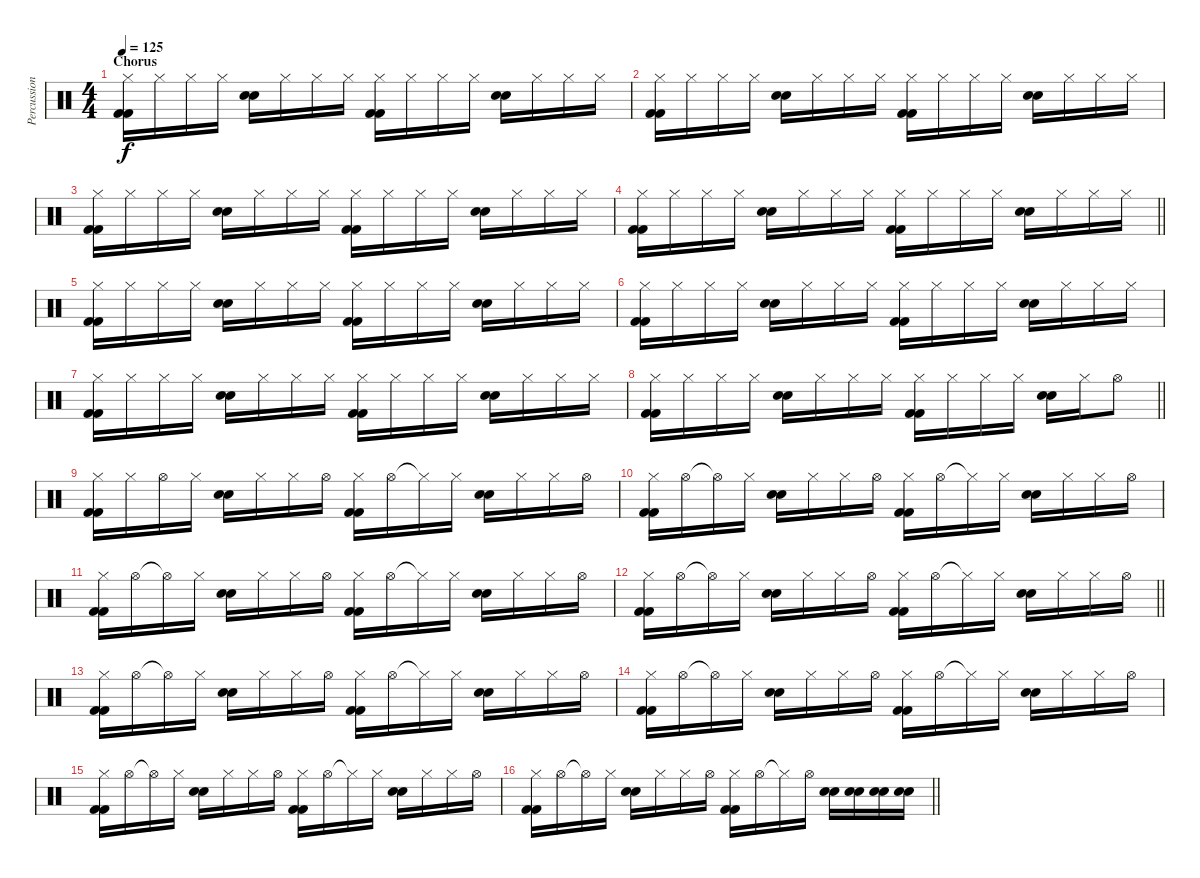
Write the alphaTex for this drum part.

\track ("Percussion" "Percussion") {instrument percussion}
\staff {score}
\articulation defaults
\ts (4 4)
\section ("" "Chorus")
\tempo 125
\clef neutral
\ks c
("Hi-Hat (closed)" "Kick (hit) 2" "Kick (hit) 2").16{dy f} "Hi-Hat (closed)".16 "Hi-Hat (closed)".16 "Hi-Hat (closed)".16 ("Electric Snare (hit)" "Electric Snare (hit)").16 "Hi-Hat (closed)".16 "Hi-Hat (closed)".16 "Hi-Hat (closed)".16 ("Hi-Hat (closed)" "Kick (hit) 2" "Kick (hit) 2").16 "Hi-Hat (closed)".16 "Hi-Hat (closed)".16 "Hi-Hat (closed)".16 ("Electric Snare (hit)" "Electric Snare (hit)").16 "Hi-Hat (closed)".16 "Hi-Hat (closed)".16 "Hi-Hat (closed)".16 |
("Hi-Hat (closed)" "Kick (hit) 2" "Kick (hit) 2").16 "Hi-Hat (closed)".16 "Hi-Hat (closed)".16 "Hi-Hat (closed)".16 ("Electric Snare (hit)" "Electric Snare (hit)").16 "Hi-Hat (closed)".16 "Hi-Hat (closed)".16 "Hi-Hat (closed)".16 ("Hi-Hat (closed)" "Kick (hit) 2" "Kick (hit) 2").16 "Hi-Hat (closed)".16 "Hi-Hat (closed)".16 "Hi-Hat (closed)".16 ("Electric Snare (hit)" "Electric Snare (hit)").16 "Hi-Hat (closed)".16 "Hi-Hat (closed)".16 "Hi-Hat (closed)".16 |
("Hi-Hat (closed)" "Kick (hit) 2" "Kick (hit) 2").16 "Hi-Hat (closed)".16 "Hi-Hat (closed)".16 "Hi-Hat (closed)".16 ("Electric Snare (hit)" "Electric Snare (hit)").16 "Hi-Hat (closed)".16 "Hi-Hat (closed)".16 "Hi-Hat (closed)".16 ("Hi-Hat (closed)" "Kick (hit) 2" "Kick (hit) 2").16 "Hi-Hat (closed)".16 "Hi-Hat (closed)".16 "Hi-Hat (closed)".16 ("Electric Snare (hit)" "Electric Snare (hit)").16 "Hi-Hat (closed)".16 "Hi-Hat (closed)".16 "Hi-Hat (closed)".16 |
\barLineRight lightlight
("Hi-Hat (closed)" "Kick (hit) 2" "Kick (hit) 2").16 "Hi-Hat (closed)".16 "Hi-Hat (closed)".16 "Hi-Hat (closed)".16 ("Electric Snare (hit)" "Electric Snare (hit)").16 "Hi-Hat (closed)".16 "Hi-Hat (closed)".16 "Hi-Hat (closed)".16 ("Hi-Hat (closed)" "Kick (hit) 2" "Kick (hit) 2").16 "Hi-Hat (closed)".16 "Hi-Hat (closed)".16 "Hi-Hat (closed)".16 ("Electric Snare (hit)" "Electric Snare (hit)").16 "Hi-Hat (closed)".16 "Hi-Hat (closed)".16 "Hi-Hat (closed)".16 |
("Hi-Hat (closed)" "Kick (hit) 2" "Kick (hit) 2").16 "Hi-Hat (closed)".16 "Hi-Hat (closed)".16 "Hi-Hat (closed)".16 ("Electric Snare (hit)" "Electric Snare (hit)").16 "Hi-Hat (closed)".16 "Hi-Hat (closed)".16 "Hi-Hat (closed)".16 ("Hi-Hat (closed)" "Kick (hit) 2" "Kick (hit) 2").16 "Hi-Hat (closed)".16 "Hi-Hat (closed)".16 "Hi-Hat (closed)".16 ("Electric Snare (hit)" "Electric Snare (hit)").16 "Hi-Hat (closed)".16 "Hi-Hat (closed)".16 "Hi-Hat (closed)".16 |
("Hi-Hat (closed)" "Kick (hit) 2" "Kick (hit) 2").16 "Hi-Hat (closed)".16 "Hi-Hat (closed)".16 "Hi-Hat (closed)".16 ("Electric Snare (hit)" "Electric Snare (hit)").16 "Hi-Hat (closed)".16 "Hi-Hat (closed)".16 "Hi-Hat (closed)".16 ("Hi-Hat (closed)" "Kick (hit) 2" "Kick (hit) 2").16 "Hi-Hat (closed)".16 "Hi-Hat (closed)".16 "Hi-Hat (closed)".16 ("Electric Snare (hit)" "Electric Snare (hit)").16 "Hi-Hat (closed)".16 "Hi-Hat (closed)".16 "Hi-Hat (closed)".16 |
("Hi-Hat (closed)" "Kick (hit) 2" "Kick (hit) 2").16 "Hi-Hat (closed)".16 "Hi-Hat (closed)".16 "Hi-Hat (closed)".16 ("Electric Snare (hit)" "Electric Snare (hit)").16 "Hi-Hat (closed)".16 "Hi-Hat (closed)".16 "Hi-Hat (closed)".16 ("Hi-Hat (closed)" "Kick (hit) 2" "Kick (hit) 2").16 "Hi-Hat (closed)".16 "Hi-Hat (closed)".16 "Hi-Hat (closed)".16 ("Electric Snare (hit)" "Electric Snare (hit)").16 "Hi-Hat (closed)".16 "Hi-Hat (closed)".16 "Hi-Hat (closed)".16 |
\barLineRight lightlight
("Hi-Hat (closed)" "Kick (hit) 2" "Kick (hit) 2").16 "Hi-Hat (closed)".16 "Hi-Hat (closed)".16 "Hi-Hat (closed)".16 ("Electric Snare (hit)" "Electric Snare (hit)").16 "Hi-Hat (closed)".16 "Hi-Hat (closed)".16 "Hi-Hat (closed)".16 ("Hi-Hat (closed)" "Kick (hit) 2" "Kick (hit) 2").16 "Hi-Hat (closed)".16 "Hi-Hat (closed)".16 "Hi-Hat (closed)".16 ("Electric Snare (hit)" "Electric Snare (hit)").16 "Hi-Hat (closed)".16 "Hi-Hat (open)".8 |
("Hi-Hat (closed)" "Kick (hit) 2" "Kick (hit) 2").16 "Hi-Hat (closed)".16 "Hi-Hat (open)".16 "Hi-Hat (closed)".16 ("Electric Snare (hit)" "Electric Snare (hit)").16 "Hi-Hat (closed)".16 "Hi-Hat (closed)".16 "Hi-Hat (open)".16 ("Hi-Hat (closed)" "Kick (hit) 2" "Kick (hit) 2").16 "Hi-Hat (open)".16 "Hi-Hat (closed)"{t}.16 "Hi-Hat (closed)".16 ("Electric Snare (hit)" "Electric Snare (hit)").16 "Hi-Hat (closed)".16 "Hi-Hat (closed)".16 "Hi-Hat (open)".16 |
("Hi-Hat (closed)" "Kick (hit) 2" "Kick (hit) 2").16 "Hi-Hat (open)".16 "Hi-Hat (open)"{t}.16 "Hi-Hat (closed)".16 ("Electric Snare (hit)" "Electric Snare (hit)").16 "Hi-Hat (closed)".16 "Hi-Hat (closed)".16 "Hi-Hat (open)".16 ("Hi-Hat (closed)" "Kick (hit) 2" "Kick (hit) 2").16 "Hi-Hat (open)".16 "Hi-Hat (closed)"{t}.16 "Hi-Hat (closed)".16 ("Electric Snare (hit)" "Electric Snare (hit)").16 "Hi-Hat (closed)".16 "Hi-Hat (closed)".16 "Hi-Hat (open)".16 |
("Hi-Hat (closed)" "Kick (hit) 2" "Kick (hit) 2").16 "Hi-Hat (open)".16 "Hi-Hat (open)"{t}.16 "Hi-Hat (closed)".16 ("Electric Snare (hit)" "Electric Snare (hit)").16 "Hi-Hat (closed)".16 "Hi-Hat (closed)".16 "Hi-Hat (open)".16 ("Hi-Hat (closed)" "Kick (hit) 2" "Kick (hit) 2").16 "Hi-Hat (open)".16 "Hi-Hat (closed)"{t}.16 "Hi-Hat (closed)".16 ("Electric Snare (hit)" "Electric Snare (hit)").16 "Hi-Hat (closed)".16 "Hi-Hat (closed)".16 "Hi-Hat (open)".16 |
\barLineRight lightlight
("Hi-Hat (closed)" "Kick (hit) 2" "Kick (hit) 2").16 "Hi-Hat (open)".16 "Hi-Hat (open)"{t}.16 "Hi-Hat (closed)".16 ("Electric Snare (hit)" "Electric Snare (hit)").16 "Hi-Hat (closed)".16 "Hi-Hat (closed)".16 "Hi-Hat (open)".16 ("Hi-Hat (closed)" "Kick (hit) 2" "Kick (hit) 2").16 "Hi-Hat (open)".16 "Hi-Hat (closed)"{t}.16 "Hi-Hat (closed)".16 ("Electric Snare (hit)" "Electric Snare (hit)").16 "Hi-Hat (closed)".16 "Hi-Hat (closed)".16 "Hi-Hat (open)".16 |
("Hi-Hat (closed)" "Kick (hit) 2" "Kick (hit) 2").16 "Hi-Hat (open)".16 "Hi-Hat (open)"{t}.16 "Hi-Hat (closed)".16 ("Electric Snare (hit)" "Electric Snare (hit)").16 "Hi-Hat (closed)".16 "Hi-Hat (closed)".16 "Hi-Hat (open)".16 ("Hi-Hat (closed)" "Kick (hit) 2" "Kick (hit) 2").16 "Hi-Hat (open)".16 "Hi-Hat (closed)"{t}.16 "Hi-Hat (closed)".16 ("Electric Snare (hit)" "Electric Snare (hit)").16 "Hi-Hat (closed)".16 "Hi-Hat (closed)".16 "Hi-Hat (open)".16 |
("Hi-Hat (closed)" "Kick (hit) 2" "Kick (hit) 2").16 "Hi-Hat (open)".16 "Hi-Hat (open)"{t}.16 "Hi-Hat (closed)".16 ("Electric Snare (hit)" "Electric Snare (hit)").16 "Hi-Hat (closed)".16 "Hi-Hat (closed)".16 "Hi-Hat (open)".16 ("Hi-Hat (closed)" "Kick (hit) 2" "Kick (hit) 2").16 "Hi-Hat (open)".16 "Hi-Hat (closed)"{t}.16 "Hi-Hat (closed)".16 ("Electric Snare (hit)" "Electric Snare (hit)").16 "Hi-Hat (closed)".16 "Hi-Hat (closed)".16 "Hi-Hat (open)".16 |
("Hi-Hat (closed)" "Kick (hit) 2" "Kick (hit) 2").16 "Hi-Hat (open)".16 "Hi-Hat (open)"{t}.16 "Hi-Hat (closed)".16 ("Electric Snare (hit)" "Electric Snare (hit)").16 "Hi-Hat (closed)".16 "Hi-Hat (closed)".16 "Hi-Hat (open)".16 ("Hi-Hat (closed)" "Kick (hit) 2" "Kick (hit) 2").16 "Hi-Hat (open)".16 "Hi-Hat (closed)"{t}.16 "Hi-Hat (closed)".16 ("Electric Snare (hit)" "Electric Snare (hit)").16 "Hi-Hat (closed)".16 "Hi-Hat (closed)".16 "Hi-Hat (open)".16 |
\barLineRight lightlight
("Hi-Hat (closed)" "Kick (hit) 2" "Kick (hit) 2").16 "Hi-Hat (open)".16 "Hi-Hat (open)"{t}.16 "Hi-Hat (closed)".16 ("Electric Snare (hit)" "Electric Snare (hit)").16 "Hi-Hat (closed)".16 "Hi-Hat (closed)".16 "Hi-Hat (open)".16 ("Hi-Hat (closed)" "Kick (hit) 2" "Kick (hit) 2").16 "Hi-Hat (open)".16 "Hi-Hat (closed)"{t}.16 "Hi-Hat (open)".16 ("Electric Snare (hit)" "Electric Snare (hit)").16 ("Electric Snare (hit)" "Electric Snare (hit)").16 ("Electric Snare (hit)" "Electric Snare (hit)").16 ("Electric Snare (hit)" "Electric Snare (hit)").16
